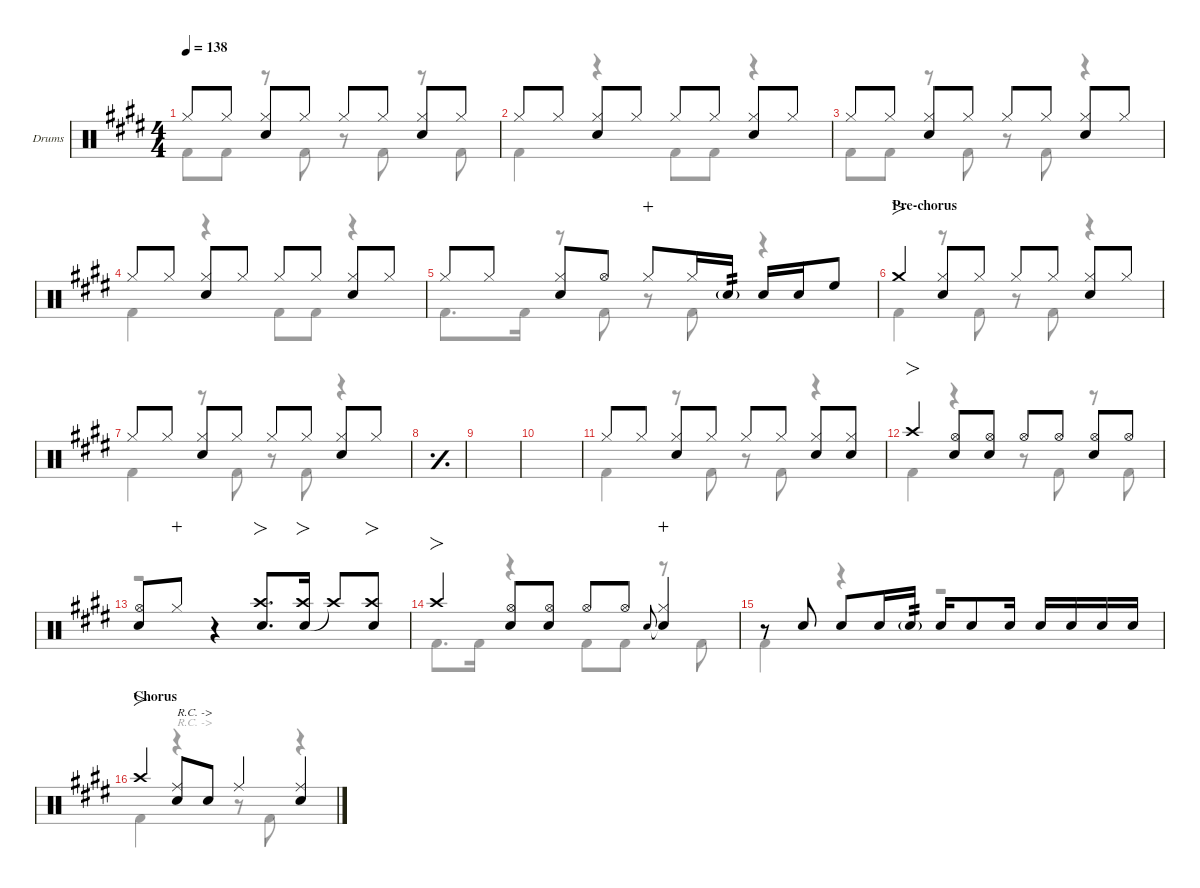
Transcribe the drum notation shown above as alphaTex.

\defaultSystemsLayout 4
\hideDynamics
\bracketExtendMode nobrackets
\firstSystemTrackNameOrientation horizontal
\track ("Drums" "Drums") {defaultSystemsLayout 4 instrument percussion}
\staff {score}
\articulation defaults
\voice
\ts (4 4)
\tempo 138
\clef neutral
\scale
0.244461
\ks c#minor "Hi-Hat (closed)"{acc forcenatural}.8{dy f beam Up} "Hi-Hat (closed)"{acc forcenatural}.8{dy mp beam Up}
("Hi-Hat (closed)"{acc forcenatural} "Snare (hit) 2"{acc forcenatural}).8{dy f beam Up} "Hi-Hat (closed)"{acc forcenatural}.8{dy mp beam Up} "Hi-Hat (closed)"{acc forcenatural}.8{dy f beam Up} "Hi-Hat (closed)"{acc forcenatural}.8{dy mp beam Up} ("Hi-Hat (closed)"{acc forcenatural} "Snare (hit) 2"{acc forcenatural}).8{dy f beam Up} "Hi-Hat (closed)"{acc forcenatural}.8{dy mp beam Up} |
\scale
0.266618 "Hi-Hat (closed)"{acc forcenatural}.8{dy f beam Up} "Hi-Hat (closed)"{acc forcenatural}.8{dy mp beam Up} ("Hi-Hat (closed)"{acc forcenatural} "Snare (hit) 2"{acc forcenatural}).8{dy f beam Up} "Hi-Hat (closed)"{acc forcenatural}.8{dy mp beam Up} "Hi-Hat (closed)"{acc forcenatural}.8{dy f beam Up} "Hi-Hat (closed)"{acc forcenatural}.8{dy mp beam Up} ("Hi-Hat (closed)"{acc forcenatural} "Snare (hit) 2"{acc forcenatural}).8{dy f beam Up} "Hi-Hat (closed)"{acc forcenatural}.8{dy mp beam Up} |
\scale
0.244461 "Hi-Hat (closed)"{acc forcenatural}.8{dy f beam Up} "Hi-Hat (closed)"{acc forcenatural}.8{dy mp beam Up} ("Hi-Hat (closed)"{acc forcenatural} "Snare (hit) 2"{acc forcenatural}).8{dy f beam Up} "Hi-Hat (closed)"{acc forcenatural}.8{dy mp beam Up} "Hi-Hat (closed)"{acc forcenatural}.8{dy f beam Up} "Hi-Hat (closed)"{acc forcenatural}.8{dy mp beam Up} ("Hi-Hat (closed)"{acc forcenatural} "Snare (hit) 2"{acc forcenatural}).8{dy f beam Up} "Hi-Hat (closed)"{acc forcenatural}.8{dy mp beam Up} |
\scale
0.244461 "Hi-Hat (closed)"{acc forcenatural}.8{dy f beam Up} "Hi-Hat (closed)"{acc forcenatural}.8{dy mp beam Up} ("Hi-Hat (closed)"{acc forcenatural} "Snare (hit) 2"{acc forcenatural}).8{dy f beam Up} "Hi-Hat (closed)"{acc forcenatural}.8{dy mp beam Up} "Hi-Hat (closed)"{acc forcenatural}.8{dy f beam Up} "Hi-Hat (closed)"{acc forcenatural}.8{dy mp beam Up} ("Hi-Hat (closed)"{acc forcenatural} "Snare (hit) 2"{acc forcenatural}).8{dy f beam Up} "Hi-Hat (closed)"{acc forcenatural}.8{dy mp beam Up} |
\scale
0.244461 "Hi-Hat (closed)"{acc forcenatural}.8{dy f beam Up} "Hi-Hat (closed)"{acc forcenatural}.8{dy mp beam Up} ("Hi-Hat (closed)"{acc forcenatural} "Snare (hit) 2"{acc forcenatural}).8{dy f beam Up} "Hi-Hat (open)"{acc forcenatural}.8{beam Up} "Hi-Hat (closed)"{acc forcenatural}.8{dy mp wahc beam Up} "Hi-Hat (closed)"{acc forcenatural}.16{beam Up beam merge} "Snare (hit) 2"{g acc forcenatural}.16{tp 2 dy mf beam Up beam split} "Snare (hit) 2"{acc forcenatural}.16{dy f beam Up} "Snare (hit) 2"{acc forcenatural}.16{dy mf beam Up} "High Floor Tom (hit)"{acc forcenatural}.8{dy f beam Up} |
\section ("" "Pre-chorus")
\scale
0.266618 "Crash medium (hit)"{acc forcenatural}.4{fo beam Up} ("Hi-Hat (closed)"{acc forcenatural} "Snare (hit) 2"{acc forcenatural}).8{beam Up} "Hi-Hat (closed)"{acc forcenatural}.8{dy mp beam Up} "Hi-Hat (closed)"{acc forcenatural}.8{dy f beam Up} "Hi-Hat (closed)"{acc forcenatural}.8{dy mp beam Up} ("Hi-Hat (closed)"{acc forcenatural} "Snare (hit) 2"{acc forcenatural}).8{dy f beam Up} "Hi-Hat (closed)"{acc forcenatural}.8{dy mp beam Up} |
\scale
0.244461 "Hi-Hat (closed)"{acc forcenatural}.8{dy f beam Up} "Hi-Hat (closed)"{acc forcenatural}.8{dy mp beam Up} ("Hi-Hat (closed)"{acc forcenatural} "Snare (hit) 2"{acc forcenatural}).8{dy f beam Up} "Hi-Hat (closed)"{acc forcenatural}.8{dy mp beam Up} "Hi-Hat (closed)"{acc forcenatural}.8{dy f beam Up} "Hi-Hat (closed)"{acc forcenatural}.8{dy mp beam Up} ("Hi-Hat (closed)"{acc forcenatural} "Snare (hit) 2"{acc forcenatural}).8{dy f beam Up} "Hi-Hat (closed)"{acc forcenatural}.8{dy mp beam Up} |
\simile simple
\scale
0.244461 |
\scale
0.244461 |
\scale
0.266618 |
\simile none
\scale
0.244461 "Hi-Hat (closed)"{acc forcenatural}.8{dy f beam Up} "Hi-Hat (closed)"{acc forcenatural}.8{dy mp beam Up} ("Hi-Hat (closed)"{acc forcenatural} "Snare (hit) 2"{acc forcenatural}).8{dy f beam Up} "Hi-Hat (closed)"{acc forcenatural}.8{dy mp beam Up} "Hi-Hat (closed)"{acc forcenatural}.8{dy f beam Up} "Hi-Hat (closed)"{acc forcenatural}.8{dy mp beam Up} ("Hi-Hat (closed)"{acc forcenatural} "Snare (hit) 2"{acc forcenatural}).8{dy f beam Up} ("Hi-Hat (closed)"{acc forcenatural} "Snare (hit) 2"{acc forcenatural}).8{beam Up} |
\scale
0.244461 "Crash high (hit)"{acc forcenatural}.4{fo beam Up} ("Snare (hit) 2"{acc forcenatural} "Hi-Hat (open)"{acc forcenatural}).8{beam Up} ("Snare (hit) 2"{acc forcenatural} "Hi-Hat (open)"{acc forcenatural}).8{beam Up} "Hi-Hat (open)"{acc forcenatural}.8{beam Up} "Hi-Hat (open)"{acc forcenatural}.8{dy mf beam Up} ("Hi-Hat (open)"{acc forcenatural} "Snare (hit) 2"{acc forcenatural}).8{dy f beam Up} "Hi-Hat (open)"{acc forcenatural}.8{dy mf beam Up} |
\scale
0.244461 ("Hi-Hat (open)"{acc forcenatural} "Snare (hit) 2"{acc forcenatural}).8{dy f beam Up} "Hi-Hat (closed)"{acc forcenatural}.8{dy mp wahc beam Up} r.4{beam Up} ("Snare (hit) 2"{acc forcenatural} "Crash high (hit)"{acc forcenatural}).8{fo d dy f beam Up} ("Snare (hit) 2"{acc forcenatural} "Crash high (hit)"{acc forcenatural}).16{fo beam Up beam split} "Crash high (hit)"{t acc forcenatural}.8{beam Up beam merge} ("Snare (hit) 2"{acc forcenatural} "Crash high (hit)"{acc forcenatural}).8{fo beam Up} |
\scale
0.511079 "Crash high (hit)"{acc forcenatural}.4{fo beam Up} ("Hi-Hat (open)"{acc forcenatural} "Snare (hit) 2"{acc forcenatural}).8{beam Up} ("Hi-Hat (open)"{acc forcenatural} "Snare (hit) 2"{acc forcenatural}).8{dy mf beam Up} "Hi-Hat (open)"{acc forcenatural}.8{dy f beam Up} "Hi-Hat (open)"{acc forcenatural}.8{dy mf beam Up} "Snare (hit) 2"{acc forcenatural}.8{gr onbeat dy f beam Up} ("Snare (hit) 2"{t acc forcenatural} "Hi-Hat (closed)"{acc forcenatural}).4{wahc beam Up} |
\scale
0.488921 r.8{beam Up} "Snare (hit) 2"{acc forcenatural}.8{beam Up beam split} "Snare (hit) 2"{acc forcenatural}.8{beam Up} "Snare (hit) 2"{acc forcenatural}.16{beam Up} "Snare (hit) 2"{g acc forcenatural}.16{tp 2 dy mf beam Up} "Snare (hit) 2"{acc forcenatural}.16{dy f beam Up} "Snare (hit) 2"{acc forcenatural}.8{beam Up} "Snare (hit) 2"{acc forcenatural}.16{beam Up beam split} "Snare (hit) 2"{acc forcenatural}.16{beam Up} "Snare (hit) 2"{acc forcenatural}.16{dy mf beam Up} "Snare (hit) 2"{acc forcenatural}.16{dy f beam Up} "Snare (hit) 2"{acc forcenatural}.16{dy mf beam Up} |
\section ("" "Chorus")
\scale
0.266618 "Crash high (hit)"{acc forcenatural}.4{fo dy f beam Up} ("Ride (middle)"{acc forcenatural} "Snare (hit) 2"{acc forcenatural}).8{txt "R.C. ->" beam Up} "Snare (hit) 2"{acc forcenatural}.8{beam Up} "Ride (middle)"{acc forcenatural}.4{beam Up} ("Ride (middle)"{acc forcenatural} "Snare (hit) 2"{acc forcenatural}).4{beam Up}
\voice
\clef neutral
\ottava regular
\simile none
\scale
0.244461
\ks c#minor "Kick (hit) 2"{acc forcenatural}.8{dy f beam Down} "Kick (hit) 2"{acc forcenatural}.8{beam Down}
r.8{beam Down} "Kick (hit) 2"{acc forcenatural}.8{beam Down} r.8{beam Down} "Kick (hit) 2"{acc forcenatural}.8{beam Down} r.8{beam Down} "Kick (hit) 2"{acc forcenatural}.8{beam Down} |
\scale
0.266618 "Kick (hit) 2"{acc forcenatural}.4{beam Down} r.4{beam Down} "Kick (hit) 2"{acc forcenatural}.8{beam Down} "Kick (hit) 2"{acc forcenatural}.8{beam Down} r.4{beam Down} |
\scale
0.244461 "Kick (hit) 2"{acc forcenatural}.8{beam Down} "Kick (hit) 2"{acc forcenatural}.8{beam Down} r.8{beam Down} "Kick (hit) 2"{acc forcenatural}.8{beam Down} r.8{beam Down} "Kick (hit) 2"{acc forcenatural}.8{beam Down} r.4{beam Down} |
\scale
0.244461 "Kick (hit) 2"{acc forcenatural}.4{beam Down} r.4{beam Down} "Kick (hit) 2"{acc forcenatural}.8{beam Down} "Kick (hit) 2"{acc forcenatural}.8{beam Down} r.4{beam Down} |
\scale
0.244461 "Kick (hit) 2"{acc forcenatural}.8{d beam Down} "Kick (hit) 2"{acc forcenatural}.16{beam Down beam split} r.8{beam Down beam split} "Kick (hit) 2"{acc forcenatural}.8{beam Down} r.8{beam Down} "Kick (hit) 2"{acc forcenatural}.8{beam Down} r.4{beam Down} |
\scale
0.266618 "Kick (hit) 2"{acc forcenatural}.4{beam Down} r.8{beam Down} "Kick (hit) 2"{acc forcenatural}.8{beam Down} r.8{beam Down} "Kick (hit) 2"{acc forcenatural}.8{beam Down} r.4{beam Down} |
\scale
0.244461 "Kick (hit) 2"{acc forcenatural}.4{beam Down} r.8{beam Down} "Kick (hit) 2"{acc forcenatural}.8{beam Down} r.8{beam Down} "Kick (hit) 2"{acc forcenatural}.8{beam Down} r.4{beam Down} |
\simile simple
\scale
0.244461 |
\scale
0.244461 |
\scale
0.266618 |
\simile none
\scale
0.244461 "Kick (hit) 2"{acc forcenatural}.4{beam Down} r.8{beam Down} "Kick (hit) 2"{acc forcenatural}.8{beam Down} r.8{beam Down} "Kick (hit) 2"{acc forcenatural}.8{beam Down} r.4{beam Down} |
\scale
0.244461 "Kick (hit) 2"{acc forcenatural}.4{beam Down} r.4{beam Down} r.8{beam Down} "Kick (hit) 2"{acc forcenatural}.8{beam Down} r.8{beam Down} "Kick (hit) 2"{acc forcenatural}.8{beam Down} |
\scale
0.244461 r.1{beam Down} |
\scale
0.511079 "Kick (hit) 2"{acc forcenatural}.8{d beam Down} "Kick (hit) 2"{acc forcenatural}.16{beam Down} r.4{beam Down} "Kick (hit) 2"{acc forcenatural}.8{beam Down} "Kick (hit) 2"{acc forcenatural}.8{beam Down} r.8{beam Down} "Kick (hit) 2"{acc forcenatural}.8{beam Down} |
\scale
0.488921 "Kick (hit) 2"{acc forcenatural}.4{beam Down} r.4{beam Down} r.2{beam Down} |
\scale
0.266618 "Kick (hit) 2"{acc forcenatural}.4{beam Down} r.4{txt "R.C. ->" beam Down} r.8{beam Down} "Kick (hit) 2"{acc forcenatural}.8{beam Down} r.4{beam Down}
